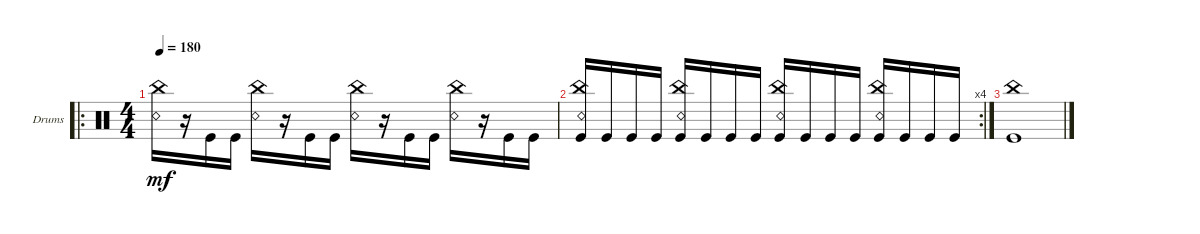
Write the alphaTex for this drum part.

\defaultSystemsLayout 4
\bracketExtendMode groupsimilarinstruments
\firstSystemTrackNameOrientation horizontal
\otherSystemsTrackNameOrientation horizontal
\track ("Drumkit" "Drums") {instrument percussion}
\staff {score}
\articulation defaults
\ro
\ts (4 4)
\tempo 180
\clef neutral
\ks c
("Snare (rim shot)" "China (hit)").16{dy mf} r.16 "Kick (hit)".16 "Kick (hit)".16 ("Snare (rim shot)" "China (hit)").16 r.16 "Kick (hit)".16 "Kick (hit)".16 ("Snare (rim shot)" "China (hit)").16 r.16 "Kick (hit)".16 "Kick (hit)".16 ("Snare (rim shot)" "China (hit)").16 r.16 "Kick (hit)".16 "Kick (hit)".16 |
\rc 4
("Kick (hit)" "Snare (rim shot)" "China (hit)").16 "Kick (hit)".16 "Kick (hit)".16 "Kick (hit)".16 ("Kick (hit)" "Snare (rim shot)" "China (hit)").16 "Kick (hit)".16 "Kick (hit)".16 "Kick (hit)".16 ("Kick (hit)" "Snare (rim shot)" "China (hit)").16 "Kick (hit)".16 "Kick (hit)".16 "Kick (hit)".16 ("Kick (hit)" "Snare (rim shot)" "China (hit)").16 "Kick (hit)".16 "Kick (hit)".16 "Kick (hit)".16 |
("Kick (hit)" "China (hit)").1
